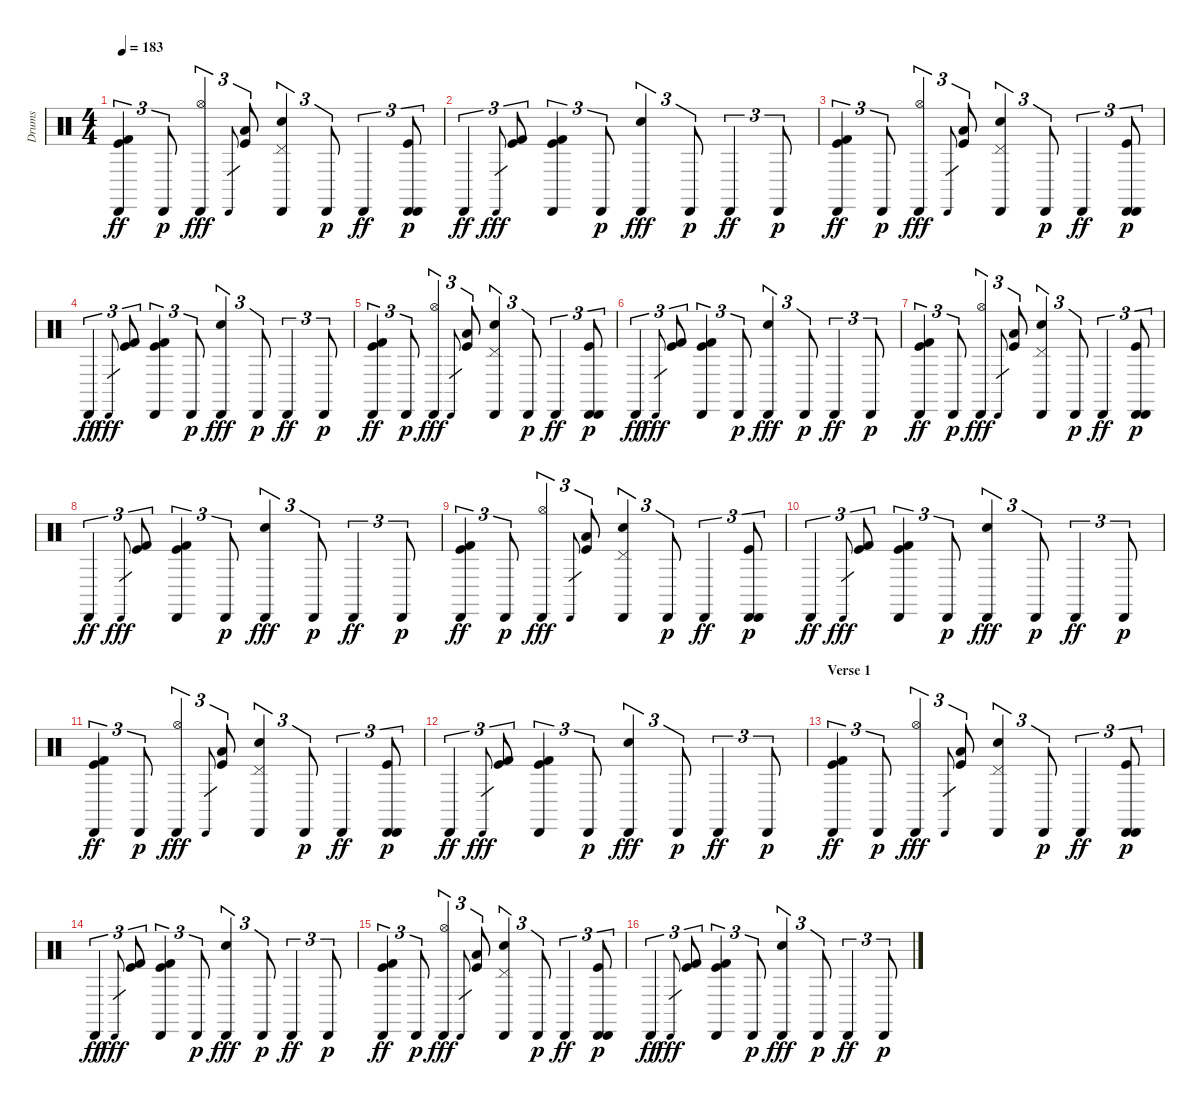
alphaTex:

\track ("Drums" "Drums") {instrument percussion}
\staff {score}
\articulation defaults
\ts (4 4)
\tempo 183
\clef neutral
\ks c
("Kick (hit) 2" "Kick (hit)" "Cabasa (hit)").4{tu (3 2) dy ff} "Cabasa (hit)".8{tu (3 2) dy p} ("Cabasa (hit)" "Hi-Hat (open)").4{tu (3 2) dy fff} "Cabasa (hit)".8{gr} ("Kick (hit)" "Low Floor Tom (hit)").8{tu (3 2)} ("Cabasa (hit)" "Electric Snare (hit)" "Pedal Hi-Hat (hit)").4{tu (3 2)} "Cabasa (hit)".8{tu (3 2) dy p} "Cabasa (hit)".4{tu (3 2) dy ff} ("Cabasa (hit)" "Kick (hit)" "Cabasa (hit)").8{tu (3 2) dy p} |
"Cabasa (hit)".4{tu (3 2) dy ff} "Cabasa (hit)".8{gr dy fff} ("Kick (hit)" "Kick (hit) 2").8{tu (3 2)} ("Cabasa (hit)" "Kick (hit)" "Kick (hit) 2").4{tu (3 2)} "Cabasa (hit)".8{tu (3 2) dy p} ("Cabasa (hit)" "Electric Snare (hit)").4{tu (3 2) dy fff} "Cabasa (hit)".8{tu (3 2) dy p} "Cabasa (hit)".4{tu (3 2) dy ff} "Cabasa (hit)".8{tu (3 2) dy p} |
("Kick (hit) 2" "Kick (hit)" "Cabasa (hit)").4{tu (3 2) dy ff} "Cabasa (hit)".8{tu (3 2) dy p} ("Cabasa (hit)" "Hi-Hat (open)").4{tu (3 2) dy fff} "Cabasa (hit)".8{gr} ("Kick (hit)" "Low Floor Tom (hit)").8{tu (3 2)} ("Cabasa (hit)" "Electric Snare (hit)" "Pedal Hi-Hat (hit)").4{tu (3 2)} "Cabasa (hit)".8{tu (3 2) dy p} "Cabasa (hit)".4{tu (3 2) dy ff} ("Cabasa (hit)" "Kick (hit)" "Cabasa (hit)").8{tu (3 2) dy p} |
"Cabasa (hit)".4{tu (3 2) dy ff} "Cabasa (hit)".8{gr dy fff} ("Kick (hit)" "Kick (hit) 2").8{tu (3 2)} ("Cabasa (hit)" "Kick (hit)" "Kick (hit) 2").4{tu (3 2)} "Cabasa (hit)".8{tu (3 2) dy p} ("Cabasa (hit)" "Electric Snare (hit)").4{tu (3 2) dy fff} "Cabasa (hit)".8{tu (3 2) dy p} "Cabasa (hit)".4{tu (3 2) dy ff} "Cabasa (hit)".8{tu (3 2) dy p} |
("Kick (hit) 2" "Kick (hit)" "Cabasa (hit)").4{tu (3 2) dy ff} "Cabasa (hit)".8{tu (3 2) dy p} ("Cabasa (hit)" "Hi-Hat (open)").4{tu (3 2) dy fff} "Cabasa (hit)".8{gr} ("Kick (hit)" "Low Floor Tom (hit)").8{tu (3 2)} ("Cabasa (hit)" "Electric Snare (hit)" "Pedal Hi-Hat (hit)").4{tu (3 2)} "Cabasa (hit)".8{tu (3 2) dy p} "Cabasa (hit)".4{tu (3 2) dy ff} ("Cabasa (hit)" "Kick (hit)" "Cabasa (hit)").8{tu (3 2) dy p} |
"Cabasa (hit)".4{tu (3 2) dy ff} "Cabasa (hit)".8{gr dy fff} ("Kick (hit)" "Kick (hit) 2").8{tu (3 2)} ("Cabasa (hit)" "Kick (hit)" "Kick (hit) 2").4{tu (3 2)} "Cabasa (hit)".8{tu (3 2) dy p} ("Cabasa (hit)" "Electric Snare (hit)").4{tu (3 2) dy fff} "Cabasa (hit)".8{tu (3 2) dy p} "Cabasa (hit)".4{tu (3 2) dy ff} "Cabasa (hit)".8{tu (3 2) dy p} |
("Kick (hit) 2" "Kick (hit)" "Cabasa (hit)").4{tu (3 2) dy ff} "Cabasa (hit)".8{tu (3 2) dy p} ("Cabasa (hit)" "Hi-Hat (open)").4{tu (3 2) dy fff} "Cabasa (hit)".8{gr} ("Kick (hit)" "Low Floor Tom (hit)").8{tu (3 2)} ("Cabasa (hit)" "Electric Snare (hit)" "Pedal Hi-Hat (hit)").4{tu (3 2)} "Cabasa (hit)".8{tu (3 2) dy p} "Cabasa (hit)".4{tu (3 2) dy ff} ("Cabasa (hit)" "Kick (hit)" "Cabasa (hit)").8{tu (3 2) dy p} |
"Cabasa (hit)".4{tu (3 2) dy ff} "Cabasa (hit)".8{gr dy fff} ("Kick (hit)" "Kick (hit) 2").8{tu (3 2)} ("Cabasa (hit)" "Kick (hit)" "Kick (hit) 2").4{tu (3 2)} "Cabasa (hit)".8{tu (3 2) dy p} ("Cabasa (hit)" "Electric Snare (hit)").4{tu (3 2) dy fff} "Cabasa (hit)".8{tu (3 2) dy p} "Cabasa (hit)".4{tu (3 2) dy ff} "Cabasa (hit)".8{tu (3 2) dy p} |
("Kick (hit) 2" "Kick (hit)" "Cabasa (hit)").4{tu (3 2) dy ff} "Cabasa (hit)".8{tu (3 2) dy p} ("Cabasa (hit)" "Hi-Hat (open)").4{tu (3 2) dy fff} "Cabasa (hit)".8{gr} ("Kick (hit)" "Low Floor Tom (hit)").8{tu (3 2)} ("Cabasa (hit)" "Electric Snare (hit)" "Pedal Hi-Hat (hit)").4{tu (3 2)} "Cabasa (hit)".8{tu (3 2) dy p} "Cabasa (hit)".4{tu (3 2) dy ff} ("Cabasa (hit)" "Kick (hit)" "Cabasa (hit)").8{tu (3 2) dy p} |
"Cabasa (hit)".4{tu (3 2) dy ff} "Cabasa (hit)".8{gr dy fff} ("Kick (hit)" "Kick (hit) 2").8{tu (3 2)} ("Cabasa (hit)" "Kick (hit)" "Kick (hit) 2").4{tu (3 2)} "Cabasa (hit)".8{tu (3 2) dy p} ("Cabasa (hit)" "Electric Snare (hit)").4{tu (3 2) dy fff} "Cabasa (hit)".8{tu (3 2) dy p} "Cabasa (hit)".4{tu (3 2) dy ff} "Cabasa (hit)".8{tu (3 2) dy p} |
("Kick (hit) 2" "Kick (hit)" "Cabasa (hit)").4{tu (3 2) dy ff} "Cabasa (hit)".8{tu (3 2) dy p} ("Cabasa (hit)" "Hi-Hat (open)").4{tu (3 2) dy fff} "Cabasa (hit)".8{gr} ("Kick (hit)" "Low Floor Tom (hit)").8{tu (3 2)} ("Cabasa (hit)" "Electric Snare (hit)" "Pedal Hi-Hat (hit)").4{tu (3 2)} "Cabasa (hit)".8{tu (3 2) dy p} "Cabasa (hit)".4{tu (3 2) dy ff} ("Cabasa (hit)" "Kick (hit)" "Cabasa (hit)").8{tu (3 2) dy p} |
"Cabasa (hit)".4{tu (3 2) dy ff} "Cabasa (hit)".8{gr dy fff} ("Kick (hit)" "Kick (hit) 2").8{tu (3 2)} ("Cabasa (hit)" "Kick (hit)" "Kick (hit) 2").4{tu (3 2)} "Cabasa (hit)".8{tu (3 2) dy p} ("Cabasa (hit)" "Electric Snare (hit)").4{tu (3 2) dy fff} "Cabasa (hit)".8{tu (3 2) dy p} "Cabasa (hit)".4{tu (3 2) dy ff} "Cabasa (hit)".8{tu (3 2) dy p} |
\section ("" "Verse 1")
("Kick (hit) 2" "Kick (hit)" "Cabasa (hit)").4{tu (3 2) dy ff} "Cabasa (hit)".8{tu (3 2) dy p} ("Cabasa (hit)" "Hi-Hat (open)").4{tu (3 2) dy fff} "Cabasa (hit)".8{gr} ("Kick (hit)" "Low Floor Tom (hit)").8{tu (3 2)} ("Cabasa (hit)" "Electric Snare (hit)" "Pedal Hi-Hat (hit)").4{tu (3 2)} "Cabasa (hit)".8{tu (3 2) dy p} "Cabasa (hit)".4{tu (3 2) dy ff} ("Cabasa (hit)" "Kick (hit)" "Cabasa (hit)").8{tu (3 2) dy p} |
"Cabasa (hit)".4{tu (3 2) dy ff} "Cabasa (hit)".8{gr dy fff} ("Kick (hit)" "Kick (hit) 2").8{tu (3 2)} ("Cabasa (hit)" "Kick (hit)" "Kick (hit) 2").4{tu (3 2)} "Cabasa (hit)".8{tu (3 2) dy p} ("Cabasa (hit)" "Electric Snare (hit)").4{tu (3 2) dy fff} "Cabasa (hit)".8{tu (3 2) dy p} "Cabasa (hit)".4{tu (3 2) dy ff} "Cabasa (hit)".8{tu (3 2) dy p} |
("Kick (hit) 2" "Kick (hit)" "Cabasa (hit)").4{tu (3 2) dy ff} "Cabasa (hit)".8{tu (3 2) dy p} ("Cabasa (hit)" "Hi-Hat (open)").4{tu (3 2) dy fff} "Cabasa (hit)".8{gr} ("Kick (hit)" "Low Floor Tom (hit)").8{tu (3 2)} ("Cabasa (hit)" "Electric Snare (hit)" "Pedal Hi-Hat (hit)").4{tu (3 2)} "Cabasa (hit)".8{tu (3 2) dy p} "Cabasa (hit)".4{tu (3 2) dy ff} ("Cabasa (hit)" "Kick (hit)" "Cabasa (hit)").8{tu (3 2) dy p} |
"Cabasa (hit)".4{tu (3 2) dy ff} "Cabasa (hit)".8{gr dy fff} ("Kick (hit)" "Kick (hit) 2").8{tu (3 2)} ("Cabasa (hit)" "Kick (hit)" "Kick (hit) 2").4{tu (3 2)} "Cabasa (hit)".8{tu (3 2) dy p} ("Cabasa (hit)" "Electric Snare (hit)").4{tu (3 2) dy fff} "Cabasa (hit)".8{tu (3 2) dy p} "Cabasa (hit)".4{tu (3 2) dy ff} "Cabasa (hit)".8{tu (3 2) dy p}
